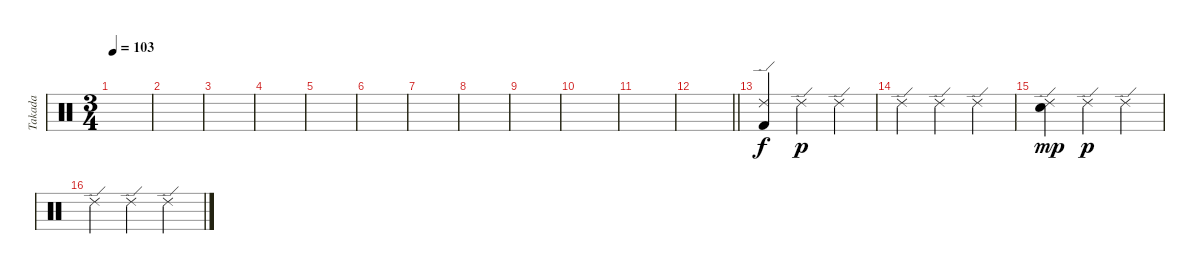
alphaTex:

\track ("Takada" "Takada") {instrument percussion}
\staff {score}
\articulation defaults
\ts (3 4)
\tempo 103
\clef neutral
\ks c
|
|
|
|
|
|
|
|
|
|
|
\barLineRight lightlight
|
\section ("" "")
("Ride (edge) 2" "Kick (hit) 2").4 "Ride (edge) 2".4{dy p} "Ride (edge) 2".4 |
"Ride (edge) 2".4 "Ride (edge) 2".4 "Ride (edge) 2".4 |
("Ride (edge) 2" "Electric Snare (hit)").4{dy mp} "Ride (edge) 2".4{dy p} "Ride (edge) 2".4 |
"Ride (edge) 2".4 "Ride (edge) 2".4 "Ride (edge) 2".4
